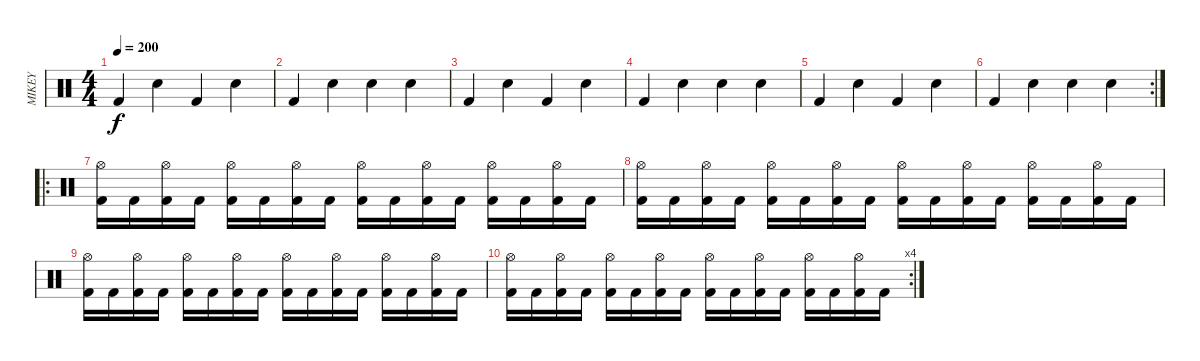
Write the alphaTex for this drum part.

\track ("MIKEY" "MIKEY") {instrument percussion}
\staff {score}
\articulation defaults
\ts (4 4)
\tempo 200
\clef neutral
\ks c "Kick (hit) 2".4{dy f} "Snare (hit) 2".4 "Kick (hit) 2".4 "Snare (hit) 2".4
|
"Kick (hit) 2".4 "Snare (hit) 2".4 "Snare (hit) 2".4 "Snare (hit) 2".4 |
"Kick (hit) 2".4 "Snare (hit) 2".4 "Kick (hit) 2".4 "Snare (hit) 2".4 |
"Kick (hit) 2".4 "Snare (hit) 2".4 "Snare (hit) 2".4 "Snare (hit) 2".4 |
"Kick (hit) 2".4 "Snare (hit) 2".4 "Kick (hit) 2".4 "Snare (hit) 2".4 |
\rc 2 "Kick (hit) 2".4 "Snare (hit) 2".4 "Snare (hit) 2".4 "Snare (hit) 2".4
|
\ro
("Hi-Hat (open)" "Kick (hit) 2").16 "Kick (hit) 2".16 ("Hi-Hat (open)" "Kick (hit) 2").16 "Kick (hit) 2".16 ("Hi-Hat (open)" "Kick (hit) 2").16 "Kick (hit) 2".16 ("Hi-Hat (open)" "Kick (hit) 2").16 "Kick (hit) 2".16 ("Hi-Hat (open)" "Kick (hit) 2").16 "Kick (hit) 2".16 ("Hi-Hat (open)" "Kick (hit) 2").16 "Kick (hit) 2".16 ("Hi-Hat (open)" "Kick (hit) 2").16 "Kick (hit) 2".16 ("Hi-Hat (open)" "Kick (hit) 2").16 "Kick (hit) 2".16 |
("Hi-Hat (open)" "Kick (hit) 2").16 "Kick (hit) 2".16 ("Hi-Hat (open)" "Kick (hit) 2").16 "Kick (hit) 2".16 ("Hi-Hat (open)" "Kick (hit) 2").16 "Kick (hit) 2".16 ("Hi-Hat (open)" "Kick (hit) 2").16 "Kick (hit) 2".16 ("Hi-Hat (open)" "Kick (hit) 2").16 "Kick (hit) 2".16 ("Hi-Hat (open)" "Kick (hit) 2").16 "Kick (hit) 2".16 ("Hi-Hat (open)" "Kick (hit) 2").16 "Kick (hit) 2".16 ("Hi-Hat (open)" "Kick (hit) 2").16 "Kick (hit) 2".16 |
("Hi-Hat (open)" "Kick (hit) 2").16 "Kick (hit) 2".16 ("Hi-Hat (open)" "Kick (hit) 2").16 "Kick (hit) 2".16 ("Hi-Hat (open)" "Kick (hit) 2").16 "Kick (hit) 2".16 ("Hi-Hat (open)" "Kick (hit) 2").16 "Kick (hit) 2".16 ("Hi-Hat (open)" "Kick (hit) 2").16 "Kick (hit) 2".16 ("Hi-Hat (open)" "Kick (hit) 2").16 "Kick (hit) 2".16 ("Hi-Hat (open)" "Kick (hit) 2").16 "Kick (hit) 2".16 ("Hi-Hat (open)" "Kick (hit) 2").16 "Kick (hit) 2".16 |
\rc 4
("Hi-Hat (open)" "Kick (hit) 2").16 "Kick (hit) 2".16 ("Hi-Hat (open)" "Kick (hit) 2").16 "Kick (hit) 2".16 ("Hi-Hat (open)" "Kick (hit) 2").16 "Kick (hit) 2".16 ("Hi-Hat (open)" "Kick (hit) 2").16 "Kick (hit) 2".16 ("Hi-Hat (open)" "Kick (hit) 2").16 "Kick (hit) 2".16 ("Hi-Hat (open)" "Kick (hit) 2").16 "Kick (hit) 2".16 ("Hi-Hat (open)" "Kick (hit) 2").16 "Kick (hit) 2".16 ("Hi-Hat (open)" "Kick (hit) 2").16 "Kick (hit) 2".16
